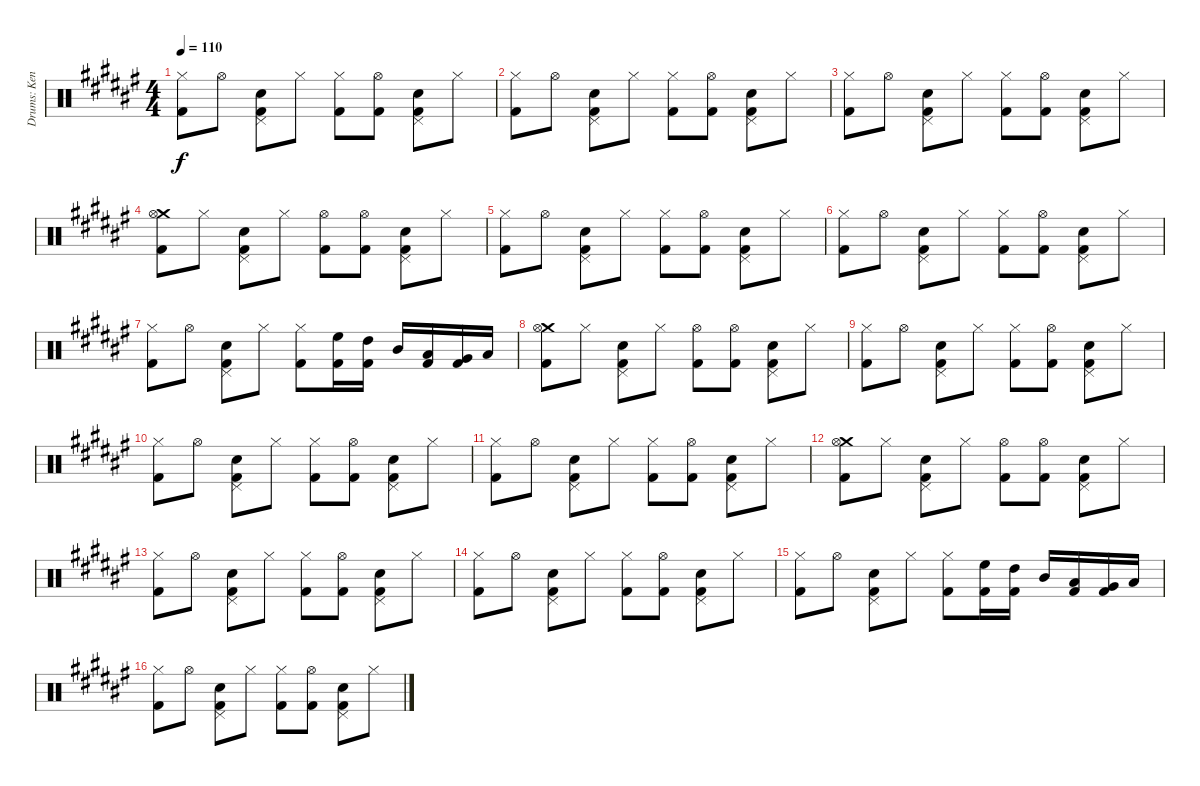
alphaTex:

\track ("Drums: Kenny Aronoff" "Drums: Ken") {instrument percussion}
\staff {score}
\articulation defaults
\ts (4 4)
\tempo 110
\clef neutral
\ks f#
("Hi-Hat (closed)" "Kick (hit) 2").8{dy f} "Hi-Hat (open)".8 ("Pedal Hi-Hat (hit)" "Snare (hit) 2" "Kick (hit) 2").8 "Hi-Hat (closed)".8 ("Hi-Hat (closed)" "Kick (hit) 2").8 ("Hi-Hat (open)" "Kick (hit) 2").8 ("Pedal Hi-Hat (hit)" "Snare (hit) 2" "Kick (hit) 2").8 "Hi-Hat (closed)".8 |
("Hi-Hat (closed)" "Kick (hit) 2").8 "Hi-Hat (open)".8 ("Pedal Hi-Hat (hit)" "Snare (hit) 2" "Kick (hit) 2").8 "Hi-Hat (closed)".8 ("Hi-Hat (closed)" "Kick (hit) 2").8 ("Hi-Hat (open)" "Kick (hit) 2").8 ("Pedal Hi-Hat (hit)" "Snare (hit) 2" "Kick (hit) 2").8 "Hi-Hat (closed)".8 |
("Hi-Hat (closed)" "Kick (hit) 2").8 "Hi-Hat (open)".8 ("Pedal Hi-Hat (hit)" "Snare (hit) 2" "Kick (hit) 2").8 "Hi-Hat (closed)".8 ("Hi-Hat (closed)" "Kick (hit) 2").8 ("Hi-Hat (open)" "Kick (hit) 2").8 ("Pedal Hi-Hat (hit)" "Snare (hit) 2" "Kick (hit) 2").8 "Hi-Hat (closed)".8 |
("Crash medium (hit)" "Hi-Hat (open)" "Kick (hit) 2").8 "Hi-Hat (closed)".8 ("Pedal Hi-Hat (hit)" "Snare (hit) 2" "Kick (hit) 2").8 "Hi-Hat (closed)".8 ("Hi-Hat (open)" "Kick (hit) 2").8 ("Hi-Hat (open)" "Kick (hit) 2").8 ("Pedal Hi-Hat (hit)" "Snare (hit) 2" "Kick (hit) 2").8 "Hi-Hat (closed)".8 |
("Hi-Hat (closed)" "Kick (hit) 2").8 "Hi-Hat (open)".8 ("Pedal Hi-Hat (hit)" "Snare (hit) 2" "Kick (hit) 2").8 "Hi-Hat (closed)".8 ("Hi-Hat (closed)" "Kick (hit) 2").8 ("Hi-Hat (open)" "Kick (hit) 2").8 ("Pedal Hi-Hat (hit)" "Snare (hit) 2" "Kick (hit) 2").8 "Hi-Hat (closed)".8 |
("Hi-Hat (closed)" "Kick (hit) 2").8 "Hi-Hat (open)".8 ("Pedal Hi-Hat (hit)" "Snare (hit) 2" "Kick (hit) 2").8 "Hi-Hat (closed)".8 ("Hi-Hat (closed)" "Kick (hit) 2").8 ("Hi-Hat (open)" "Kick (hit) 2").8 ("Pedal Hi-Hat (hit)" "Snare (hit) 2" "Kick (hit) 2").8 "Hi-Hat (closed)".8 |
("Hi-Hat (closed)" "Kick (hit) 2").8 "Hi-Hat (open)".8 ("Pedal Hi-Hat (hit)" "Snare (hit) 2" "Kick (hit) 2").8 "Hi-Hat (closed)".8 ("Hi-Hat (closed)" "Kick (hit) 2").8 ("High Floor Tom (hit)" "Kick (hit) 2").16 ("High Tom (hit)" "Kick (hit) 2").16 "Mid Tom (hit)".16 ("Low Tom (hit)" "Kick (hit) 2").16 ("Very Low Tom (hit)" "Kick (hit) 2").16 "Low Floor Tom (hit)".16 |
("Crash medium (hit)" "Hi-Hat (open)" "Kick (hit) 2").8 "Hi-Hat (closed)".8 ("Pedal Hi-Hat (hit)" "Snare (hit) 2" "Kick (hit) 2").8 "Hi-Hat (closed)".8 ("Hi-Hat (open)" "Kick (hit) 2").8 ("Hi-Hat (open)" "Kick (hit) 2").8 ("Pedal Hi-Hat (hit)" "Snare (hit) 2" "Kick (hit) 2").8 "Hi-Hat (closed)".8 |
("Hi-Hat (closed)" "Kick (hit) 2").8 "Hi-Hat (open)".8 ("Pedal Hi-Hat (hit)" "Snare (hit) 2" "Kick (hit) 2").8 "Hi-Hat (closed)".8 ("Hi-Hat (closed)" "Kick (hit) 2").8 ("Hi-Hat (open)" "Kick (hit) 2").8 ("Pedal Hi-Hat (hit)" "Snare (hit) 2" "Kick (hit) 2").8 "Hi-Hat (closed)".8 |
("Hi-Hat (closed)" "Kick (hit) 2").8 "Hi-Hat (open)".8 ("Pedal Hi-Hat (hit)" "Snare (hit) 2" "Kick (hit) 2").8 "Hi-Hat (closed)".8 ("Hi-Hat (closed)" "Kick (hit) 2").8 ("Hi-Hat (open)" "Kick (hit) 2").8 ("Pedal Hi-Hat (hit)" "Snare (hit) 2" "Kick (hit) 2").8 "Hi-Hat (closed)".8 |
("Hi-Hat (closed)" "Kick (hit) 2").8 "Hi-Hat (open)".8 ("Pedal Hi-Hat (hit)" "Snare (hit) 2" "Kick (hit) 2").8 "Hi-Hat (closed)".8 ("Hi-Hat (closed)" "Kick (hit) 2").8 ("Hi-Hat (open)" "Kick (hit) 2").8 ("Pedal Hi-Hat (hit)" "Snare (hit) 2" "Kick (hit) 2").8 "Hi-Hat (closed)".8 |
("Crash medium (hit)" "Hi-Hat (open)" "Kick (hit) 2").8 "Hi-Hat (closed)".8 ("Pedal Hi-Hat (hit)" "Snare (hit) 2" "Kick (hit) 2").8 "Hi-Hat (closed)".8 ("Hi-Hat (open)" "Kick (hit) 2").8 ("Hi-Hat (open)" "Kick (hit) 2").8 ("Pedal Hi-Hat (hit)" "Snare (hit) 2" "Kick (hit) 2").8 "Hi-Hat (closed)".8 |
("Hi-Hat (closed)" "Kick (hit) 2").8 "Hi-Hat (open)".8 ("Pedal Hi-Hat (hit)" "Snare (hit) 2" "Kick (hit) 2").8 "Hi-Hat (closed)".8 ("Hi-Hat (closed)" "Kick (hit) 2").8 ("Hi-Hat (open)" "Kick (hit) 2").8 ("Pedal Hi-Hat (hit)" "Snare (hit) 2" "Kick (hit) 2").8 "Hi-Hat (closed)".8 |
("Hi-Hat (closed)" "Kick (hit) 2").8 "Hi-Hat (open)".8 ("Pedal Hi-Hat (hit)" "Snare (hit) 2" "Kick (hit) 2").8 "Hi-Hat (closed)".8 ("Hi-Hat (closed)" "Kick (hit) 2").8 ("Hi-Hat (open)" "Kick (hit) 2").8 ("Pedal Hi-Hat (hit)" "Snare (hit) 2" "Kick (hit) 2").8 "Hi-Hat (closed)".8 |
("Hi-Hat (closed)" "Kick (hit) 2").8 "Hi-Hat (open)".8 ("Pedal Hi-Hat (hit)" "Snare (hit) 2" "Kick (hit) 2").8 "Hi-Hat (closed)".8 ("Hi-Hat (closed)" "Kick (hit) 2").8 ("High Floor Tom (hit)" "Kick (hit) 2").16 ("High Tom (hit)" "Kick (hit) 2").16 "Mid Tom (hit)".16 ("Low Tom (hit)" "Kick (hit) 2").16 ("Very Low Tom (hit)" "Kick (hit) 2").16 "Low Floor Tom (hit)".16 |
("Hi-Hat (closed)" "Kick (hit) 2").8 "Hi-Hat (open)".8 ("Pedal Hi-Hat (hit)" "Snare (hit) 2" "Kick (hit) 2").8 "Hi-Hat (closed)".8 ("Hi-Hat (closed)" "Kick (hit) 2").8 ("Hi-Hat (open)" "Kick (hit) 2").8 ("Pedal Hi-Hat (hit)" "Snare (hit) 2" "Kick (hit) 2").8 "Hi-Hat (closed)".8
